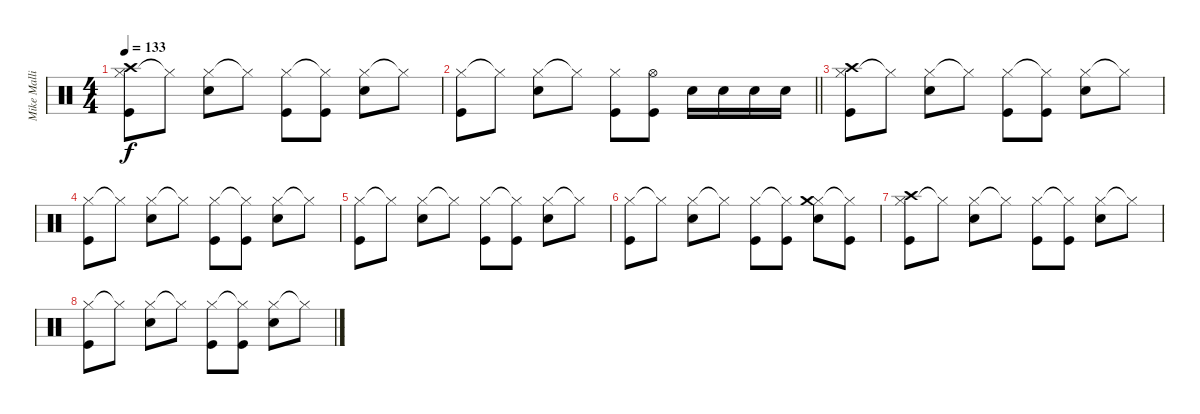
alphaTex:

\track ("Mike Mallinin" "Mike Malli") {instrument percussion}
\staff {score}
\articulation defaults
\ts (4 4)
\tempo 133
\clef neutral
\ks c
("Hi-Hat (closed)" "Crash high (hit)" "Kick (hit)").8{dy f} "Hi-Hat (closed)"{t}.8 ("Hi-Hat (closed)" "Snare (hit) 2").8 "Hi-Hat (closed)"{t}.8 ("Hi-Hat (closed)" "Kick (hit)").8 ("Hi-Hat (closed)"{t} "Kick (hit)").8 ("Hi-Hat (closed)" "Snare (hit) 2").8 "Hi-Hat (closed)"{t}.8 |
\barLineRight lightlight
("Hi-Hat (closed)" "Kick (hit)").8 "Hi-Hat (closed)"{t}.8 ("Hi-Hat (closed)" "Snare (hit) 2").8 "Hi-Hat (closed)"{t}.8 ("Hi-Hat (closed)" "Kick (hit)").8 ("Hi-Hat (open)" "Kick (hit)").8 "Snare (hit) 2".16 "Snare (hit) 2".16 "Snare (hit) 2".16 "Snare (hit) 2".16 |
("Hi-Hat (closed)" "Crash high (hit)" "Kick (hit)").8 "Hi-Hat (closed)"{t}.8 ("Hi-Hat (closed)" "Snare (hit) 2").8 "Hi-Hat (closed)"{t}.8 ("Hi-Hat (closed)" "Kick (hit)").8 ("Hi-Hat (closed)"{t} "Kick (hit)").8 ("Hi-Hat (closed)" "Snare (hit) 2").8 "Hi-Hat (closed)"{t}.8 |
("Hi-Hat (closed)" "Kick (hit)").8 "Hi-Hat (closed)"{t}.8 ("Hi-Hat (closed)" "Snare (hit) 2").8 "Hi-Hat (closed)"{t}.8 ("Hi-Hat (closed)" "Kick (hit)").8 ("Hi-Hat (closed)"{t} "Kick (hit)").8 ("Hi-Hat (closed)" "Snare (hit) 2").8 "Hi-Hat (closed)"{t}.8 |
("Hi-Hat (closed)" "Kick (hit)").8 "Hi-Hat (closed)"{t}.8 ("Hi-Hat (closed)" "Snare (hit) 2").8 "Hi-Hat (closed)"{t}.8 ("Hi-Hat (closed)" "Kick (hit)").8 ("Hi-Hat (closed)"{t} "Kick (hit)").8 ("Hi-Hat (closed)" "Snare (hit) 2").8 "Hi-Hat (closed)"{t}.8 |
("Hi-Hat (closed)" "Kick (hit)").8 "Hi-Hat (closed)"{t}.8 ("Hi-Hat (closed)" "Snare (hit) 2").8 "Hi-Hat (closed)"{t}.8 ("Hi-Hat (closed)" "Kick (hit)").8 ("Hi-Hat (closed)"{t} "Kick (hit)").8 ("Hi-Hat (closed)" "Crash medium (hit)" "Snare (hit) 2").8 ("Hi-Hat (closed)"{t} "Kick (hit)").8 |
("Hi-Hat (closed)" "Crash high (hit)" "Kick (hit)").8 "Hi-Hat (closed)"{t}.8 ("Hi-Hat (closed)" "Snare (hit) 2").8 "Hi-Hat (closed)"{t}.8 ("Hi-Hat (closed)" "Kick (hit)").8 ("Hi-Hat (closed)"{t} "Kick (hit)").8 ("Hi-Hat (closed)" "Snare (hit) 2").8 "Hi-Hat (closed)"{t}.8 |
("Hi-Hat (closed)" "Kick (hit)").8 "Hi-Hat (closed)"{t}.8 ("Hi-Hat (closed)" "Snare (hit) 2").8 "Hi-Hat (closed)"{t}.8 ("Hi-Hat (closed)" "Kick (hit)").8 ("Hi-Hat (closed)"{t} "Kick (hit)").8 ("Hi-Hat (closed)" "Snare (hit) 2").8 "Hi-Hat (closed)"{t}.8
